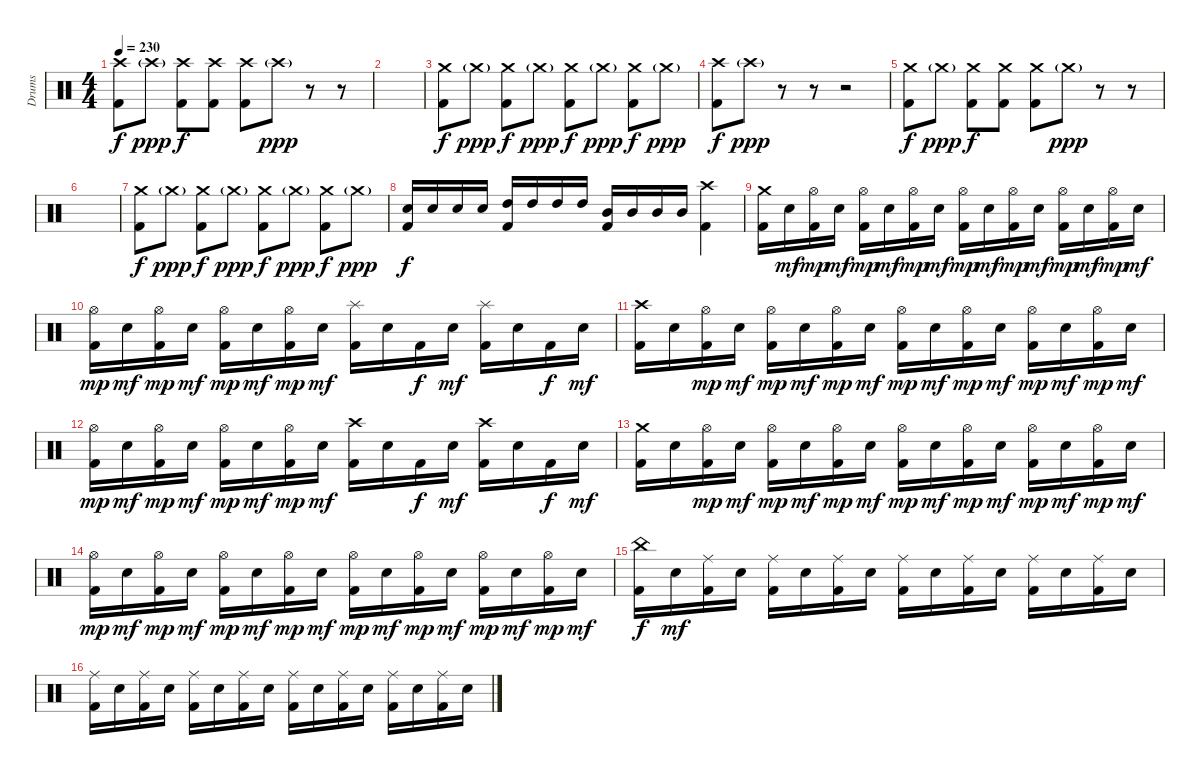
\track ("Drums" "Drums") {instrument percussion}
\staff {score}
\articulation defaults
\ts (4 4)
\tempo 230
\clef neutral
\ks c
("Crash high (hit)" "Kick (hit) 2").8{dy f} "Crash high (hit)"{g}.8{dy ppp} ("Crash high (hit)" "Kick (hit) 2").8{dy f} ("Crash high (hit)" "Kick (hit) 2").8 ("Crash high (hit)" "Kick (hit) 2").8 "Crash high (hit)"{g}.8{dy ppp} r.8 r.8 |
|
("Crash medium (hit)" "Kick (hit) 2").8{dy f} "Crash medium (hit)"{g}.8{dy ppp} ("Crash medium (hit)" "Kick (hit) 2").8{dy f} "Crash medium (hit)"{g}.8{dy ppp} ("Crash medium (hit)" "Kick (hit) 2").8{dy f} "Crash medium (hit)"{g}.8{dy ppp} ("Crash medium (hit)" "Kick (hit) 2").8{dy f} "Crash medium (hit)"{g}.8{dy ppp} |
("Crash high (hit)" "Kick (hit) 2").8{dy f} "Crash high (hit)"{g}.8{dy ppp} r.8 r.8 r.2 |
("Crash medium (hit)" "Kick (hit) 2").8{dy f} "Crash medium (hit)"{g}.8{dy ppp} ("Crash medium (hit)" "Kick (hit) 2").8{dy f} ("Crash medium (hit)" "Kick (hit) 2").8 ("Crash medium (hit)" "Kick (hit) 2").8 "Crash medium (hit)"{g}.8{dy ppp} r.8 r.8 |
|
("Crash medium (hit)" "Kick (hit) 2").8{dy f} "Crash medium (hit)"{g}.8{dy ppp} ("Crash medium (hit)" "Kick (hit) 2").8{dy f} "Crash medium (hit)"{g}.8{dy ppp} ("Crash medium (hit)" "Kick (hit) 2").8{dy f} "Crash medium (hit)"{g}.8{dy ppp} ("Crash medium (hit)" "Kick (hit) 2").8{dy f} "Crash medium (hit)"{g}.8{dy ppp} |
("Electric Snare (hit)" "Kick (hit) 2").16{dy f} "Electric Snare (hit)".16 "Electric Snare (hit)".16 "Electric Snare (hit)".16 ("High Tom (hit)" "Kick (hit) 2").16 "High Tom (hit)".16 "High Tom (hit)".16 "High Tom (hit)".16 ("Mid Tom (hit)" "Kick (hit) 2").16 "Mid Tom (hit)".16 "Mid Tom (hit)".16 "Mid Tom (hit)".16 ("Crash high (hit)" "Kick (hit) 2").4 |
("Crash medium (hit)" "Kick (hit) 2").16 "Electric Snare (hit)".16{dy mf} ("Hi-Hat (open)" "Kick (hit) 2").16{dy mp} "Electric Snare (hit)".16{dy mf} ("Hi-Hat (open)" "Kick (hit) 2").16{dy mp} "Electric Snare (hit)".16{dy mf} ("Hi-Hat (open)" "Kick (hit) 2").16{dy mp} "Electric Snare (hit)".16{dy mf} ("Hi-Hat (open)" "Kick (hit) 2").16{dy mp} "Electric Snare (hit)".16{dy mf} ("Hi-Hat (open)" "Kick (hit) 2").16{dy mp} "Electric Snare (hit)".16{dy mf} ("Hi-Hat (open)" "Kick (hit) 2").16{dy mp} "Electric Snare (hit)".16{dy mf} ("Hi-Hat (open)" "Kick (hit) 2").16{dy mp} "Electric Snare (hit)".16{dy mf} |
("Hi-Hat (open)" "Kick (hit) 2").16{dy mp} "Electric Snare (hit)".16{dy mf} ("Hi-Hat (open)" "Kick (hit) 2").16{dy mp} "Electric Snare (hit)".16{dy mf} ("Hi-Hat (open)" "Kick (hit) 2").16{dy mp} "Electric Snare (hit)".16{dy mf} ("Hi-Hat (open)" "Kick (hit) 2").16{dy mp} "Electric Snare (hit)".16{dy mf} ("Splash (hit)" "Kick (hit) 2").16 "Electric Snare (hit)".16 "Kick (hit) 2".16{dy f} "Electric Snare (hit)".16{dy mf} ("Splash (hit)" "Kick (hit) 2").16 "Electric Snare (hit)".16 "Kick (hit) 2".16{dy f} "Electric Snare (hit)".16{dy mf} |
("Crash high (hit)" "Kick (hit) 2").16 "Electric Snare (hit)".16 ("Hi-Hat (open)" "Kick (hit) 2").16{dy mp} "Electric Snare (hit)".16{dy mf} ("Hi-Hat (open)" "Kick (hit) 2").16{dy mp} "Electric Snare (hit)".16{dy mf} ("Hi-Hat (open)" "Kick (hit) 2").16{dy mp} "Electric Snare (hit)".16{dy mf} ("Hi-Hat (open)" "Kick (hit) 2").16{dy mp} "Electric Snare (hit)".16{dy mf} ("Hi-Hat (open)" "Kick (hit) 2").16{dy mp} "Electric Snare (hit)".16{dy mf} ("Hi-Hat (open)" "Kick (hit) 2").16{dy mp} "Electric Snare (hit)".16{dy mf} ("Hi-Hat (open)" "Kick (hit) 2").16{dy mp} "Electric Snare (hit)".16{dy mf} |
("Hi-Hat (open)" "Kick (hit) 2").16{dy mp} "Electric Snare (hit)".16{dy mf} ("Hi-Hat (open)" "Kick (hit) 2").16{dy mp} "Electric Snare (hit)".16{dy mf} ("Hi-Hat (open)" "Kick (hit) 2").16{dy mp} "Electric Snare (hit)".16{dy mf} ("Hi-Hat (open)" "Kick (hit) 2").16{dy mp} "Electric Snare (hit)".16{dy mf} ("Crash high (hit)" "Kick (hit) 2").16 "Electric Snare (hit)".16 "Kick (hit) 2".16{dy f} "Electric Snare (hit)".16{dy mf} ("Crash high (hit)" "Kick (hit) 2").16 "Electric Snare (hit)".16 "Kick (hit) 2".16{dy f} "Electric Snare (hit)".16{dy mf} |
("Crash medium (hit)" "Kick (hit) 2").16 "Electric Snare (hit)".16 ("Hi-Hat (open)" "Kick (hit) 2").16{dy mp} "Electric Snare (hit)".16{dy mf} ("Hi-Hat (open)" "Kick (hit) 2").16{dy mp} "Electric Snare (hit)".16{dy mf} ("Hi-Hat (open)" "Kick (hit) 2").16{dy mp} "Electric Snare (hit)".16{dy mf} ("Hi-Hat (open)" "Kick (hit) 2").16{dy mp} "Electric Snare (hit)".16{dy mf} ("Hi-Hat (open)" "Kick (hit) 2").16{dy mp} "Electric Snare (hit)".16{dy mf} ("Hi-Hat (open)" "Kick (hit) 2").16{dy mp} "Electric Snare (hit)".16{dy mf} ("Hi-Hat (open)" "Kick (hit) 2").16{dy mp} "Electric Snare (hit)".16{dy mf} |
("Hi-Hat (open)" "Kick (hit) 2").16{dy mp} "Electric Snare (hit)".16{dy mf} ("Hi-Hat (open)" "Kick (hit) 2").16{dy mp} "Electric Snare (hit)".16{dy mf} ("Hi-Hat (open)" "Kick (hit) 2").16{dy mp} "Electric Snare (hit)".16{dy mf} ("Hi-Hat (open)" "Kick (hit) 2").16{dy mp} "Electric Snare (hit)".16{dy mf} ("Hi-Hat (open)" "Kick (hit) 2").16{dy mp} "Electric Snare (hit)".16{dy mf} ("Hi-Hat (open)" "Kick (hit) 2").16{dy mp} "Electric Snare (hit)".16{dy mf} ("Hi-Hat (open)" "Kick (hit) 2").16{dy mp} "Electric Snare (hit)".16{dy mf} ("Hi-Hat (open)" "Kick (hit) 2").16{dy mp} "Electric Snare (hit)".16{dy mf} |
("China (hit)" "Kick (hit) 2").16{dy f} "Electric Snare (hit)".16{dy mf} ("Ride (middle)" "Kick (hit) 2").16 "Electric Snare (hit)".16 ("Ride (middle)" "Kick (hit) 2").16 "Electric Snare (hit)".16 ("Ride (middle)" "Kick (hit) 2").16 "Electric Snare (hit)".16 ("Ride (middle)" "Kick (hit) 2").16 "Electric Snare (hit)".16 ("Ride (middle)" "Kick (hit) 2").16 "Electric Snare (hit)".16 ("Ride (middle)" "Kick (hit) 2").16 "Electric Snare (hit)".16 ("Ride (middle)" "Kick (hit) 2").16 "Electric Snare (hit)".16 |
("Ride (middle)" "Kick (hit) 2").16 "Electric Snare (hit)".16 ("Ride (middle)" "Kick (hit) 2").16 "Electric Snare (hit)".16 ("Ride (middle)" "Kick (hit) 2").16 "Electric Snare (hit)".16 ("Ride (middle)" "Kick (hit) 2").16 "Electric Snare (hit)".16 ("Ride (middle)" "Kick (hit) 2").16 "Electric Snare (hit)".16 ("Ride (middle)" "Kick (hit) 2").16 "Electric Snare (hit)".16 ("Ride (middle)" "Kick (hit) 2").16 "Electric Snare (hit)".16 ("Ride (middle)" "Kick (hit) 2").16 "Electric Snare (hit)".16
